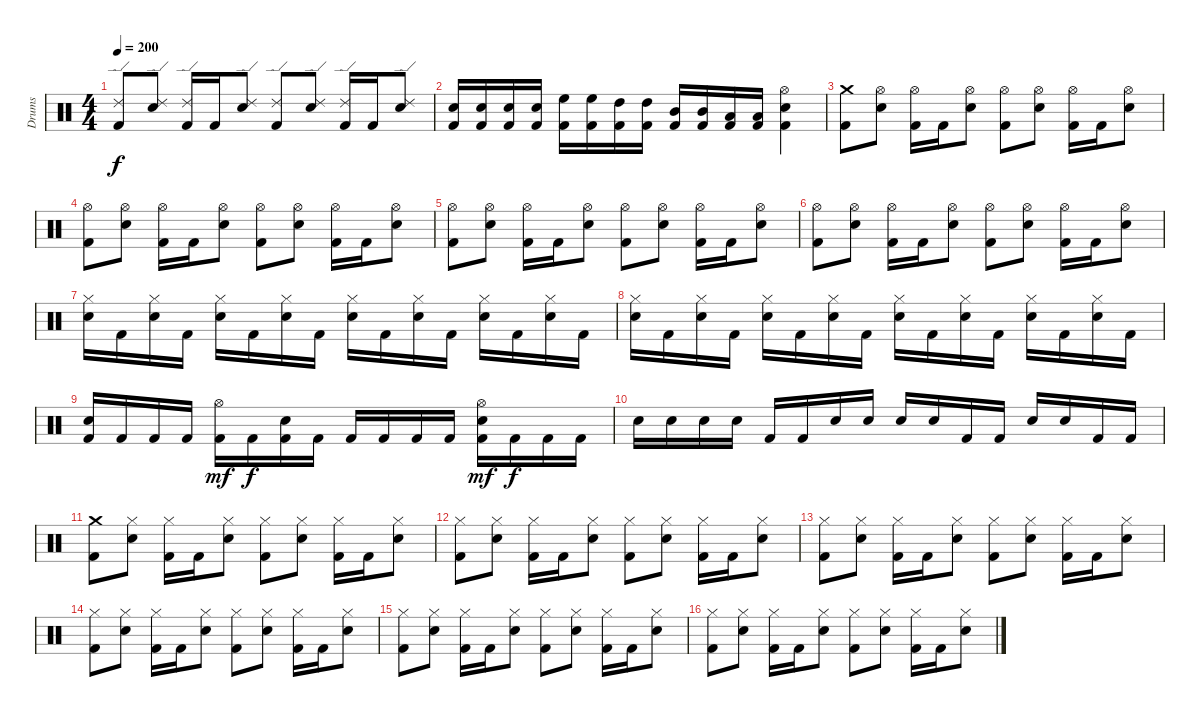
\track ("Drums" "Drums") {instrument percussion}
\staff {score}
\articulation defaults
\ts (4 4)
\tempo 200
\clef neutral
\ks c
("Kick (hit) 2" "Ride (edge) 2").8{dy f} ("Snare (hit) 2" "Ride (edge) 2").8 ("Kick (hit) 2" "Ride (edge) 2").16 "Kick (hit) 2".16 ("Snare (hit) 2" "Ride (edge) 2").8 ("Kick (hit) 2" "Ride (edge) 2").8 ("Snare (hit) 2" "Ride (edge) 2").8 ("Kick (hit) 2" "Ride (edge) 2").16 "Kick (hit) 2".16 ("Snare (hit) 2" "Ride (edge) 2").8 |
("Kick (hit) 2" "Snare (hit) 2").16 ("Kick (hit) 2" "Snare (hit) 2").16 ("Kick (hit) 2" "Snare (hit) 2").16 ("Kick (hit) 2" "Snare (hit) 2").16 ("Kick (hit) 2" "High Floor Tom (hit)").16 ("Kick (hit) 2" "High Floor Tom (hit)").16 ("Kick (hit) 2" "High Tom (hit)").16 ("Kick (hit) 2" "High Tom (hit)").16 ("Kick (hit) 2" "Mid Tom (hit)").16 ("Kick (hit) 2" "Mid Tom (hit)").16 ("Kick (hit) 2" "Low Tom (hit)").16 ("Kick (hit) 2" "Low Tom (hit)").16 ("Kick (hit) 2" "Snare (hit) 2" "Hi-Hat (open)").4 |
\section ("" "")
("Kick (hit) 2" "Crash medium (hit)").8 ("Snare (hit) 2" "Hi-Hat (open)").8 ("Kick (hit) 2" "Hi-Hat (open)").16 "Kick (hit) 2".16 ("Snare (hit) 2" "Hi-Hat (open)").8 ("Kick (hit) 2" "Hi-Hat (open)").8 ("Snare (hit) 2" "Hi-Hat (open)").8 ("Kick (hit) 2" "Hi-Hat (open)").16 "Kick (hit) 2".16 ("Snare (hit) 2" "Hi-Hat (open)").8 |
("Kick (hit) 2" "Hi-Hat (open)").8 ("Snare (hit) 2" "Hi-Hat (open)").8 ("Kick (hit) 2" "Hi-Hat (open)").16 "Kick (hit) 2".16 ("Snare (hit) 2" "Hi-Hat (open)").8 ("Kick (hit) 2" "Hi-Hat (open)").8 ("Snare (hit) 2" "Hi-Hat (open)").8 ("Kick (hit) 2" "Hi-Hat (open)").16 "Kick (hit) 2".16 ("Snare (hit) 2" "Hi-Hat (open)").8 |
("Kick (hit) 2" "Hi-Hat (open)").8 ("Snare (hit) 2" "Hi-Hat (open)").8 ("Kick (hit) 2" "Hi-Hat (open)").16 "Kick (hit) 2".16 ("Snare (hit) 2" "Hi-Hat (open)").8 ("Kick (hit) 2" "Hi-Hat (open)").8 ("Snare (hit) 2" "Hi-Hat (open)").8 ("Kick (hit) 2" "Hi-Hat (open)").16 "Kick (hit) 2".16 ("Snare (hit) 2" "Hi-Hat (open)").8 |
("Kick (hit) 2" "Hi-Hat (open)").8 ("Snare (hit) 2" "Hi-Hat (open)").8 ("Kick (hit) 2" "Hi-Hat (open)").16 "Kick (hit) 2".16 ("Snare (hit) 2" "Hi-Hat (open)").8 ("Kick (hit) 2" "Hi-Hat (open)").8 ("Snare (hit) 2" "Hi-Hat (open)").8 ("Kick (hit) 2" "Hi-Hat (open)").16 "Kick (hit) 2".16 ("Snare (hit) 2" "Hi-Hat (open)").8 |
("Snare (hit) 2" "Hi-Hat (closed)").16 "Kick (hit) 2".16 ("Snare (hit) 2" "Hi-Hat (closed)").16 "Kick (hit) 2".16 ("Snare (hit) 2" "Hi-Hat (closed)").16 "Kick (hit) 2".16 ("Snare (hit) 2" "Hi-Hat (closed)").16 "Kick (hit) 2".16 ("Snare (hit) 2" "Hi-Hat (closed)").16 "Kick (hit) 2".16 ("Snare (hit) 2" "Hi-Hat (closed)").16 "Kick (hit) 2".16 ("Snare (hit) 2" "Hi-Hat (closed)").16 "Kick (hit) 2".16 ("Snare (hit) 2" "Hi-Hat (closed)").16 "Kick (hit) 2".16 |
("Snare (hit) 2" "Hi-Hat (closed)").16 "Kick (hit) 2".16 ("Snare (hit) 2" "Hi-Hat (closed)").16 "Kick (hit) 2".16 ("Snare (hit) 2" "Hi-Hat (closed)").16 "Kick (hit) 2".16 ("Snare (hit) 2" "Hi-Hat (closed)").16 "Kick (hit) 2".16 ("Snare (hit) 2" "Hi-Hat (closed)").16 "Kick (hit) 2".16 ("Snare (hit) 2" "Hi-Hat (closed)").16 "Kick (hit) 2".16 ("Snare (hit) 2" "Hi-Hat (closed)").16 "Kick (hit) 2".16 ("Snare (hit) 2" "Hi-Hat (closed)").16 "Kick (hit) 2".16 |
("Kick (hit) 2" "Snare (hit) 2").16 "Kick (hit) 2".16 "Kick (hit) 2".16 "Kick (hit) 2".16 ("Kick (hit) 2" "Hi-Hat (open)").16{dy mf} "Kick (hit) 2".16{dy f} ("Kick (hit) 2" "Snare (hit) 2").16 "Kick (hit) 2".16 "Kick (hit) 2".16 "Kick (hit) 2".16 "Kick (hit) 2".16 "Kick (hit) 2".16 ("Kick (hit) 2" "Snare (hit) 2" "Hi-Hat (open)").16{dy mf} "Kick (hit) 2".16{dy f} "Kick (hit) 2".16 "Kick (hit) 2".16 |
"Snare (hit) 2".16 "Snare (hit) 2".16 "Snare (hit) 2".16 "Snare (hit) 2".16 "Kick (hit) 2".16 "Kick (hit) 2".16 "Snare (hit) 2".16 "Snare (hit) 2".16 "Snare (hit) 2".16 "Snare (hit) 2".16 "Kick (hit) 2".16 "Kick (hit) 2".16 "Snare (hit) 2".16 "Snare (hit) 2".16 "Kick (hit) 2".16 "Kick (hit) 2".16 |
\section ("" "")
("Kick (hit) 2" "Crash medium (hit)").8 ("Snare (hit) 2" "Hi-Hat (closed)").8 ("Kick (hit) 2" "Hi-Hat (closed)").16 "Kick (hit) 2".16 ("Snare (hit) 2" "Hi-Hat (closed)").8 ("Kick (hit) 2" "Hi-Hat (closed)").8 ("Snare (hit) 2" "Hi-Hat (closed)").8 ("Kick (hit) 2" "Hi-Hat (closed)").16 "Kick (hit) 2".16 ("Snare (hit) 2" "Hi-Hat (closed)").8 |
("Kick (hit) 2" "Hi-Hat (closed)").8 ("Snare (hit) 2" "Hi-Hat (closed)").8 ("Kick (hit) 2" "Hi-Hat (closed)").16 "Kick (hit) 2".16 ("Snare (hit) 2" "Hi-Hat (closed)").8 ("Kick (hit) 2" "Hi-Hat (closed)").8 ("Snare (hit) 2" "Hi-Hat (closed)").8 ("Kick (hit) 2" "Hi-Hat (closed)").16 "Kick (hit) 2".16 ("Snare (hit) 2" "Hi-Hat (closed)").8 |
("Kick (hit) 2" "Hi-Hat (closed)").8 ("Snare (hit) 2" "Hi-Hat (closed)").8 ("Kick (hit) 2" "Hi-Hat (closed)").16 "Kick (hit) 2".16 ("Snare (hit) 2" "Hi-Hat (closed)").8 ("Kick (hit) 2" "Hi-Hat (closed)").8 ("Snare (hit) 2" "Hi-Hat (closed)").8 ("Kick (hit) 2" "Hi-Hat (closed)").16 "Kick (hit) 2".16 ("Snare (hit) 2" "Hi-Hat (closed)").8 |
("Kick (hit) 2" "Hi-Hat (closed)").8 ("Snare (hit) 2" "Hi-Hat (closed)").8 ("Kick (hit) 2" "Hi-Hat (closed)").16 "Kick (hit) 2".16 ("Snare (hit) 2" "Hi-Hat (closed)").8 ("Kick (hit) 2" "Hi-Hat (closed)").8 ("Snare (hit) 2" "Hi-Hat (closed)").8 ("Kick (hit) 2" "Hi-Hat (closed)").16 "Kick (hit) 2".16 ("Snare (hit) 2" "Hi-Hat (closed)").8 |
("Kick (hit) 2" "Hi-Hat (closed)").8 ("Snare (hit) 2" "Hi-Hat (closed)").8 ("Kick (hit) 2" "Hi-Hat (closed)").16 "Kick (hit) 2".16 ("Snare (hit) 2" "Hi-Hat (closed)").8 ("Kick (hit) 2" "Hi-Hat (closed)").8 ("Snare (hit) 2" "Hi-Hat (closed)").8 ("Kick (hit) 2" "Hi-Hat (closed)").16 "Kick (hit) 2".16 ("Snare (hit) 2" "Hi-Hat (closed)").8 |
("Kick (hit) 2" "Hi-Hat (closed)").8 ("Snare (hit) 2" "Hi-Hat (closed)").8 ("Kick (hit) 2" "Hi-Hat (closed)").16 "Kick (hit) 2".16 ("Snare (hit) 2" "Hi-Hat (closed)").8 ("Kick (hit) 2" "Hi-Hat (closed)").8 ("Snare (hit) 2" "Hi-Hat (closed)").8 ("Kick (hit) 2" "Hi-Hat (closed)").16 "Kick (hit) 2".16 ("Snare (hit) 2" "Hi-Hat (closed)").8
